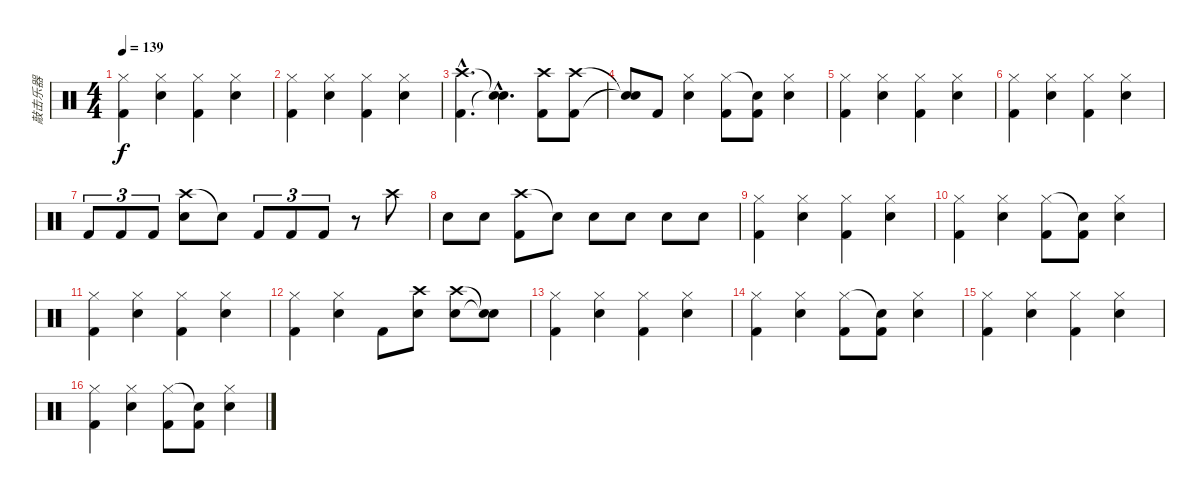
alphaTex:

\track ("敲击乐器" "敲击乐器") {instrument percussion}
\staff {score}
\articulation defaults
\ts (4 4)
\tempo 139
\clef neutral
\ks c
("Hi-Hat (closed)" "Kick (hit) 2").4{dy f} ("Hi-Hat (closed)" "Snare (hit) 2").4 ("Hi-Hat (closed)" "Kick (hit) 2").4 ("Hi-Hat (closed)" "Snare (hit) 2").4 |
("Hi-Hat (closed)" "Kick (hit) 2").4 ("Hi-Hat (closed)" "Snare (hit) 2").4 ("Hi-Hat (closed)" "Kick (hit) 2").4 ("Hi-Hat (closed)" "Snare (hit) 2").4 |
("Crash high (hit)"{hac} "Kick (hit) 2"{hac}).4{d} ("Snare (hit)"{hac t} "Snare (hit)"{hac t}).4{d} ("Crash high (hit)" "Kick (hit) 2").8 ("Crash high (hit)" "Kick (hit) 2").8 |
("Snare (hit)"{t} "Snare (hit)"{t}).8 "Kick (hit) 2".8 ("Hi-Hat (closed)" "Snare (hit) 2").4 ("Hi-Hat (closed)" "Kick (hit) 2").8 ("Snare (hit)"{t} "Kick (hit) 2").8 ("Hi-Hat (closed)" "Snare (hit) 2").4 |
("Hi-Hat (closed)" "Kick (hit) 2").4 ("Hi-Hat (closed)" "Snare (hit) 2").4 ("Hi-Hat (closed)" "Kick (hit) 2").4 ("Hi-Hat (closed)" "Snare (hit) 2").4 |
("Hi-Hat (closed)" "Kick (hit) 2").4 ("Hi-Hat (closed)" "Snare (hit) 2").4 ("Hi-Hat (closed)" "Kick (hit) 2").4 ("Hi-Hat (closed)" "Snare (hit) 2").4 |
"Kick (hit) 2".8{tu (3 2)} "Kick (hit) 2".8{tu (3 2)} "Kick (hit) 2".8{tu (3 2)} ("Crash high (hit)" "Snare (hit) 2").8 "Snare (hit)"{t}.8 "Kick (hit) 2".8{tu (3 2)} "Kick (hit) 2".8{tu (3 2)} "Kick (hit) 2".8{tu (3 2)} r.8 "Crash high (hit)".8 |
"Snare (hit) 2".8 "Snare (hit) 2".8 ("Crash high (hit)" "Kick (hit) 2").8 "Snare (hit)"{t}.8 "Snare (hit) 2".8 "Snare (hit) 2".8 "Snare (hit) 2".8 "Snare (hit) 2".8 |
("Hi-Hat (closed)" "Kick (hit) 2").4 ("Hi-Hat (closed)" "Snare (hit) 2").4 ("Hi-Hat (closed)" "Kick (hit) 2").4 ("Hi-Hat (closed)" "Snare (hit) 2").4 |
("Hi-Hat (closed)" "Kick (hit) 2").4 ("Hi-Hat (closed)" "Snare (hit) 2").4 ("Hi-Hat (closed)" "Kick (hit) 2").8 ("Snare (hit)"{t} "Kick (hit) 2").8 ("Hi-Hat (closed)" "Snare (hit) 2").4 |
("Hi-Hat (closed)" "Kick (hit) 2").4 ("Hi-Hat (closed)" "Snare (hit) 2").4 ("Hi-Hat (closed)" "Kick (hit) 2").4 ("Hi-Hat (closed)" "Snare (hit) 2").4 |
("Hi-Hat (closed)" "Kick (hit) 2").4 ("Hi-Hat (closed)" "Snare (hit) 2").4 "Kick (hit) 2".8 ("Crash high (hit)" "Snare (hit) 2").8 ("Crash high (hit)" "Snare (hit) 2").8 ("Snare (hit)"{t} "Snare (hit)"{t}).8 |
("Hi-Hat (closed)" "Kick (hit) 2").4 ("Hi-Hat (closed)" "Snare (hit) 2").4 ("Hi-Hat (closed)" "Kick (hit) 2").4 ("Hi-Hat (closed)" "Snare (hit) 2").4 |
("Hi-Hat (closed)" "Kick (hit) 2").4 ("Hi-Hat (closed)" "Snare (hit) 2").4 ("Hi-Hat (closed)" "Kick (hit) 2").8 ("Snare (hit)"{t} "Kick (hit) 2").8 ("Hi-Hat (closed)" "Snare (hit) 2").4 |
("Hi-Hat (closed)" "Kick (hit) 2").4 ("Hi-Hat (closed)" "Snare (hit) 2").4 ("Hi-Hat (closed)" "Kick (hit) 2").4 ("Hi-Hat (closed)" "Snare (hit) 2").4 |
("Hi-Hat (closed)" "Kick (hit) 2").4 ("Hi-Hat (closed)" "Snare (hit) 2").4 ("Hi-Hat (closed)" "Kick (hit) 2").8 ("Snare (hit)"{t} "Kick (hit) 2").8 ("Hi-Hat (closed)" "Snare (hit) 2").4
